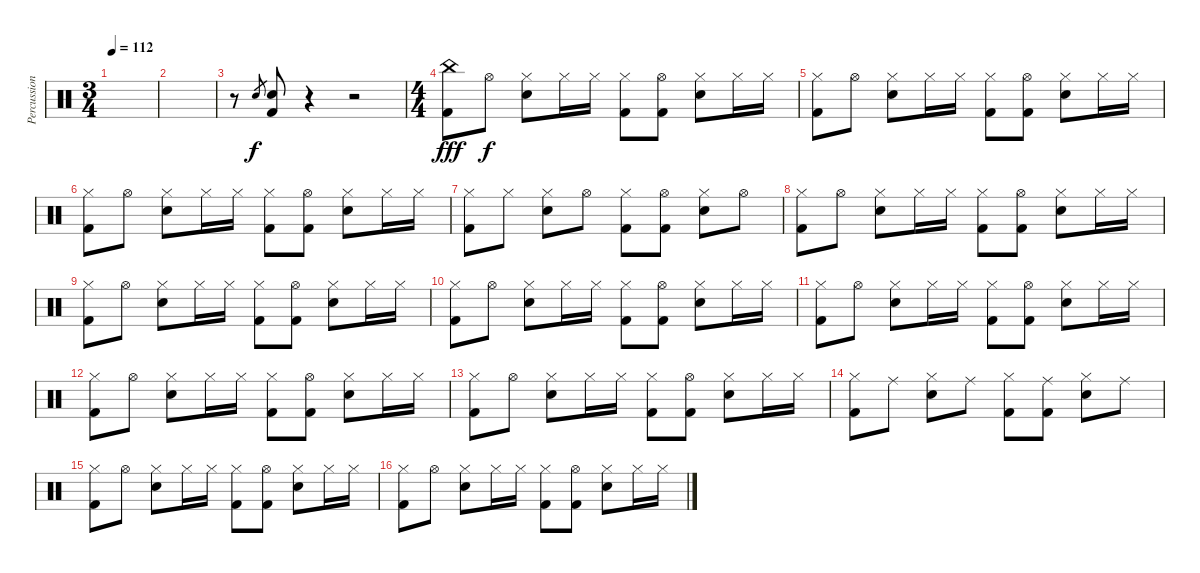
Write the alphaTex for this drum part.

\track ("Percussion" "Percussion") {instrument percussion}
\staff {score}
\articulation defaults
\ts (3 4)
\tempo 112
\clef neutral
\ks c
|
|
r.8 "Snare (hit) 2".8{gr} ("Snare (hit) 2" "Kick (hit) 2").8 r.4 r.2 |
\ts (4 4)
("China (hit)" "Kick (hit) 2").8{dy fff} "Hi-Hat (open)".8{dy f} ("Hi-Hat (closed)" "Snare (hit) 2").8 "Hi-Hat (closed)".16 "Hi-Hat (closed)".16 ("Hi-Hat (closed)" "Kick (hit) 2").8 ("Hi-Hat (open)" "Kick (hit) 2").8 ("Hi-Hat (closed)" "Snare (hit) 2").8 "Hi-Hat (closed)".16 "Hi-Hat (closed)".16 |
("Hi-Hat (closed)" "Kick (hit) 2").8 "Hi-Hat (open)".8 ("Hi-Hat (closed)" "Snare (hit) 2").8 "Hi-Hat (closed)".16 "Hi-Hat (closed)".16 ("Hi-Hat (closed)" "Kick (hit) 2").8 ("Hi-Hat (open)" "Kick (hit) 2").8 ("Hi-Hat (closed)" "Snare (hit) 2").8 "Hi-Hat (closed)".16 "Hi-Hat (closed)".16 |
("Hi-Hat (closed)" "Kick (hit) 2").8 "Hi-Hat (open)".8 ("Hi-Hat (closed)" "Snare (hit) 2").8 "Hi-Hat (closed)".16 "Hi-Hat (closed)".16 ("Hi-Hat (closed)" "Kick (hit) 2").8 ("Hi-Hat (open)" "Kick (hit) 2").8 ("Hi-Hat (closed)" "Snare (hit) 2").8 "Hi-Hat (closed)".16 "Hi-Hat (closed)".16 |
("Hi-Hat (closed)" "Kick (hit) 2").8 "Hi-Hat (closed)".8 ("Hi-Hat (closed)" "Snare (hit) 2").8 "Hi-Hat (open)".8 ("Hi-Hat (closed)" "Kick (hit) 2").8 ("Hi-Hat (open)" "Kick (hit) 2").8 ("Hi-Hat (closed)" "Snare (hit) 2").8 "Hi-Hat (open)".8 |
("Hi-Hat (closed)" "Kick (hit) 2").8 "Hi-Hat (open)".8 ("Hi-Hat (closed)" "Snare (hit) 2").8 "Hi-Hat (closed)".16 "Hi-Hat (closed)".16 ("Hi-Hat (closed)" "Kick (hit) 2").8 ("Hi-Hat (open)" "Kick (hit) 2").8 ("Hi-Hat (closed)" "Snare (hit) 2").8 "Hi-Hat (closed)".16 "Hi-Hat (closed)".16 |
("Hi-Hat (closed)" "Kick (hit) 2").8 "Hi-Hat (open)".8 ("Hi-Hat (closed)" "Snare (hit) 2").8 "Hi-Hat (closed)".16 "Hi-Hat (closed)".16 ("Hi-Hat (closed)" "Kick (hit) 2").8 ("Hi-Hat (open)" "Kick (hit) 2").8 ("Hi-Hat (closed)" "Snare (hit) 2").8 "Hi-Hat (closed)".16 "Hi-Hat (closed)".16 |
("Hi-Hat (closed)" "Kick (hit) 2").8 "Hi-Hat (open)".8 ("Hi-Hat (closed)" "Snare (hit) 2").8 "Hi-Hat (closed)".16 "Hi-Hat (closed)".16 ("Hi-Hat (closed)" "Kick (hit) 2").8 ("Hi-Hat (open)" "Kick (hit) 2").8 ("Hi-Hat (closed)" "Snare (hit) 2").8 "Hi-Hat (closed)".16 "Hi-Hat (closed)".16 |
("Hi-Hat (closed)" "Kick (hit) 2").8 "Hi-Hat (open)".8 ("Hi-Hat (closed)" "Snare (hit) 2").8 "Hi-Hat (closed)".16 "Hi-Hat (closed)".16 ("Hi-Hat (closed)" "Kick (hit) 2").8 ("Hi-Hat (open)" "Kick (hit) 2").8 ("Hi-Hat (closed)" "Snare (hit) 2").8 "Hi-Hat (closed)".16 "Hi-Hat (closed)".16 |
("Hi-Hat (closed)" "Kick (hit) 2").8 "Hi-Hat (open)".8 ("Hi-Hat (closed)" "Snare (hit) 2").8 "Hi-Hat (closed)".16 "Hi-Hat (closed)".16 ("Hi-Hat (closed)" "Kick (hit) 2").8 ("Hi-Hat (open)" "Kick (hit) 2").8 ("Hi-Hat (closed)" "Snare (hit) 2").8 "Hi-Hat (closed)".16 "Hi-Hat (closed)".16 |
("Hi-Hat (closed)" "Kick (hit) 2").8 "Hi-Hat (open)".8 ("Hi-Hat (closed)" "Snare (hit) 2").8 "Hi-Hat (closed)".16 "Hi-Hat (closed)".16 ("Hi-Hat (closed)" "Kick (hit) 2").8 ("Hi-Hat (open)" "Kick (hit) 2").8 ("Hi-Hat (closed)" "Snare (hit) 2").8 "Hi-Hat (closed)".16 "Hi-Hat (closed)".16 |
("Hi-Hat (closed)" "Kick (hit) 2").8 "Ride (middle)".8 ("Hi-Hat (closed)" "Snare (hit) 2").8 "Ride (middle)".8 ("Hi-Hat (closed)" "Kick (hit) 2").8 ("Ride (middle)" "Kick (hit) 2").8 ("Hi-Hat (closed)" "Snare (hit) 2").8 "Ride (middle)".8 |
("Hi-Hat (closed)" "Kick (hit) 2").8 "Hi-Hat (open)".8 ("Hi-Hat (closed)" "Snare (hit) 2").8 "Hi-Hat (closed)".16 "Hi-Hat (closed)".16 ("Hi-Hat (closed)" "Kick (hit) 2").8 ("Hi-Hat (open)" "Kick (hit) 2").8 ("Hi-Hat (closed)" "Snare (hit) 2").8 "Hi-Hat (closed)".16 "Hi-Hat (closed)".16 |
("Hi-Hat (closed)" "Kick (hit) 2").8 "Hi-Hat (open)".8 ("Hi-Hat (closed)" "Snare (hit) 2").8 "Hi-Hat (closed)".16 "Hi-Hat (closed)".16 ("Hi-Hat (closed)" "Kick (hit) 2").8 ("Hi-Hat (open)" "Kick (hit) 2").8 ("Hi-Hat (closed)" "Snare (hit) 2").8 "Hi-Hat (closed)".16 "Hi-Hat (closed)".16
